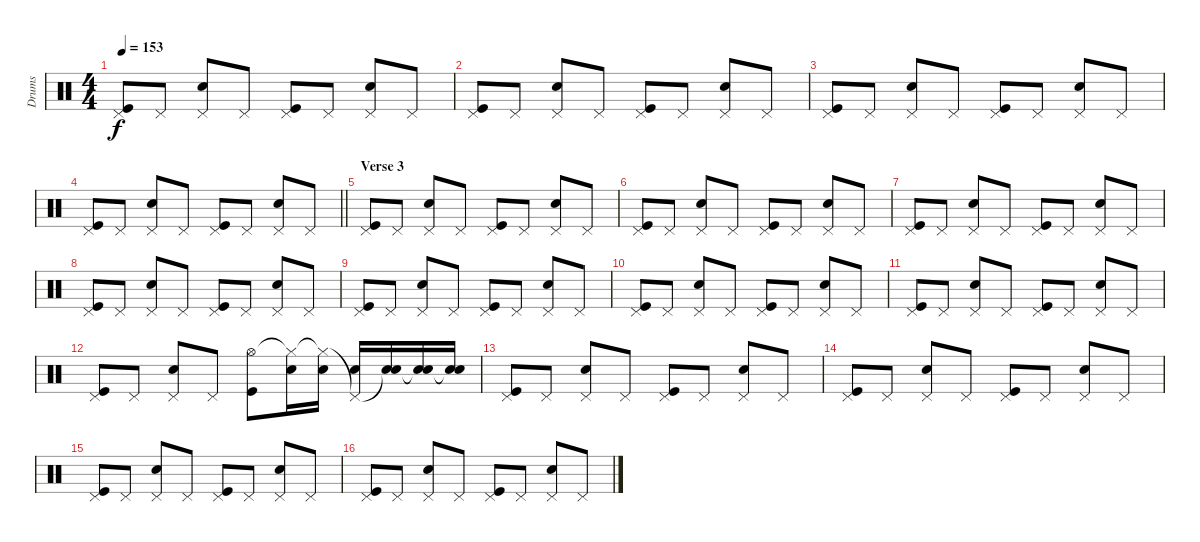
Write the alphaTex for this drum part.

\track ("Drums" "Drums") {instrument percussion}
\staff {score}
\articulation defaults
\ts (4 4)
\tempo 153
\clef neutral
\ks c
("Pedal Hi-Hat (hit)" "Kick (hit)").8{dy f} "Pedal Hi-Hat (hit)".8 ("Pedal Hi-Hat (hit)" "Snare (hit) 2").8 "Pedal Hi-Hat (hit)".8 ("Pedal Hi-Hat (hit)" "Kick (hit)").8 "Pedal Hi-Hat (hit)".8 ("Pedal Hi-Hat (hit)" "Snare (hit) 2").8 "Pedal Hi-Hat (hit)".8 |
("Pedal Hi-Hat (hit)" "Kick (hit)").8 "Pedal Hi-Hat (hit)".8 ("Pedal Hi-Hat (hit)" "Snare (hit) 2").8 "Pedal Hi-Hat (hit)".8 ("Pedal Hi-Hat (hit)" "Kick (hit)").8 "Pedal Hi-Hat (hit)".8 ("Pedal Hi-Hat (hit)" "Snare (hit) 2").8 "Pedal Hi-Hat (hit)".8 |
("Pedal Hi-Hat (hit)" "Kick (hit)").8 "Pedal Hi-Hat (hit)".8 ("Pedal Hi-Hat (hit)" "Snare (hit) 2").8 "Pedal Hi-Hat (hit)".8 ("Pedal Hi-Hat (hit)" "Kick (hit)").8 "Pedal Hi-Hat (hit)".8 ("Pedal Hi-Hat (hit)" "Snare (hit) 2").8 "Pedal Hi-Hat (hit)".8 |
\barLineRight lightlight
("Pedal Hi-Hat (hit)" "Kick (hit)").8 "Pedal Hi-Hat (hit)".8 ("Pedal Hi-Hat (hit)" "Snare (hit) 2").8 "Pedal Hi-Hat (hit)".8 ("Pedal Hi-Hat (hit)" "Kick (hit)").8 "Pedal Hi-Hat (hit)".8 ("Pedal Hi-Hat (hit)" "Snare (hit) 2").8 "Pedal Hi-Hat (hit)".8 |
\section ("" "Verse 3")
("Pedal Hi-Hat (hit)" "Kick (hit)").8 "Pedal Hi-Hat (hit)".8 ("Pedal Hi-Hat (hit)" "Snare (hit) 2").8 "Pedal Hi-Hat (hit)".8 ("Pedal Hi-Hat (hit)" "Kick (hit)").8 "Pedal Hi-Hat (hit)".8 ("Pedal Hi-Hat (hit)" "Snare (hit) 2").8 "Pedal Hi-Hat (hit)".8 |
("Pedal Hi-Hat (hit)" "Kick (hit)").8 "Pedal Hi-Hat (hit)".8 ("Pedal Hi-Hat (hit)" "Snare (hit) 2").8 "Pedal Hi-Hat (hit)".8 ("Pedal Hi-Hat (hit)" "Kick (hit)").8 "Pedal Hi-Hat (hit)".8 ("Pedal Hi-Hat (hit)" "Snare (hit) 2").8 "Pedal Hi-Hat (hit)".8 |
("Pedal Hi-Hat (hit)" "Kick (hit)").8 "Pedal Hi-Hat (hit)".8 ("Pedal Hi-Hat (hit)" "Snare (hit) 2").8 "Pedal Hi-Hat (hit)".8 ("Pedal Hi-Hat (hit)" "Kick (hit)").8 "Pedal Hi-Hat (hit)".8 ("Pedal Hi-Hat (hit)" "Snare (hit) 2").8 "Pedal Hi-Hat (hit)".8 |
("Pedal Hi-Hat (hit)" "Kick (hit)").8 "Pedal Hi-Hat (hit)".8 ("Pedal Hi-Hat (hit)" "Snare (hit) 2").8 "Pedal Hi-Hat (hit)".8 ("Pedal Hi-Hat (hit)" "Kick (hit)").8 "Pedal Hi-Hat (hit)".8 ("Pedal Hi-Hat (hit)" "Snare (hit) 2").8 "Pedal Hi-Hat (hit)".8 |
("Pedal Hi-Hat (hit)" "Kick (hit)").8 "Pedal Hi-Hat (hit)".8 ("Pedal Hi-Hat (hit)" "Snare (hit) 2").8 "Pedal Hi-Hat (hit)".8 ("Pedal Hi-Hat (hit)" "Kick (hit)").8 "Pedal Hi-Hat (hit)".8 ("Pedal Hi-Hat (hit)" "Snare (hit) 2").8 "Pedal Hi-Hat (hit)".8 |
("Pedal Hi-Hat (hit)" "Kick (hit)").8 "Pedal Hi-Hat (hit)".8 ("Pedal Hi-Hat (hit)" "Snare (hit) 2").8 "Pedal Hi-Hat (hit)".8 ("Pedal Hi-Hat (hit)" "Kick (hit)").8 "Pedal Hi-Hat (hit)".8 ("Pedal Hi-Hat (hit)" "Snare (hit) 2").8 "Pedal Hi-Hat (hit)".8 |
("Pedal Hi-Hat (hit)" "Kick (hit)").8 "Pedal Hi-Hat (hit)".8 ("Pedal Hi-Hat (hit)" "Snare (hit) 2").8 "Pedal Hi-Hat (hit)".8 ("Pedal Hi-Hat (hit)" "Kick (hit)").8 "Pedal Hi-Hat (hit)".8 ("Pedal Hi-Hat (hit)" "Snare (hit) 2").8 "Pedal Hi-Hat (hit)".8 |
("Pedal Hi-Hat (hit)" "Kick (hit)").8 "Pedal Hi-Hat (hit)".8 ("Pedal Hi-Hat (hit)" "Snare (hit) 2").8 "Pedal Hi-Hat (hit)".8 ("Hi-Hat (open)" "Kick (hit)").8 ("Hi-Hat (closed)"{t} "Snare (hit) 2").16 ("Hi-Hat (closed)"{t} "Snare (hit) 2").16 ("Pedal Hi-Hat (hit)"{t} "Snare (hit) 2").16 ("Snare (hit)"{t} "Snare (hit) 2").16 ("Snare (hit)"{t} "Snare (hit) 2").16 ("Snare (hit)"{t} "Snare (hit) 2").16 |
("Pedal Hi-Hat (hit)" "Kick (hit)").8 "Pedal Hi-Hat (hit)".8 ("Pedal Hi-Hat (hit)" "Snare (hit) 2").8 "Pedal Hi-Hat (hit)".8 ("Pedal Hi-Hat (hit)" "Kick (hit)").8 "Pedal Hi-Hat (hit)".8 ("Pedal Hi-Hat (hit)" "Snare (hit) 2").8 "Pedal Hi-Hat (hit)".8 |
("Pedal Hi-Hat (hit)" "Kick (hit)").8 "Pedal Hi-Hat (hit)".8 ("Pedal Hi-Hat (hit)" "Snare (hit) 2").8 "Pedal Hi-Hat (hit)".8 ("Pedal Hi-Hat (hit)" "Kick (hit)").8 "Pedal Hi-Hat (hit)".8 ("Pedal Hi-Hat (hit)" "Snare (hit) 2").8 "Pedal Hi-Hat (hit)".8 |
("Pedal Hi-Hat (hit)" "Kick (hit)").8 "Pedal Hi-Hat (hit)".8 ("Pedal Hi-Hat (hit)" "Snare (hit) 2").8 "Pedal Hi-Hat (hit)".8 ("Pedal Hi-Hat (hit)" "Kick (hit)").8 "Pedal Hi-Hat (hit)".8 ("Pedal Hi-Hat (hit)" "Snare (hit) 2").8 "Pedal Hi-Hat (hit)".8 |
("Pedal Hi-Hat (hit)" "Kick (hit)").8 "Pedal Hi-Hat (hit)".8 ("Pedal Hi-Hat (hit)" "Snare (hit) 2").8 "Pedal Hi-Hat (hit)".8 ("Pedal Hi-Hat (hit)" "Kick (hit)").8 "Pedal Hi-Hat (hit)".8 ("Pedal Hi-Hat (hit)" "Snare (hit) 2").8 "Pedal Hi-Hat (hit)".8
